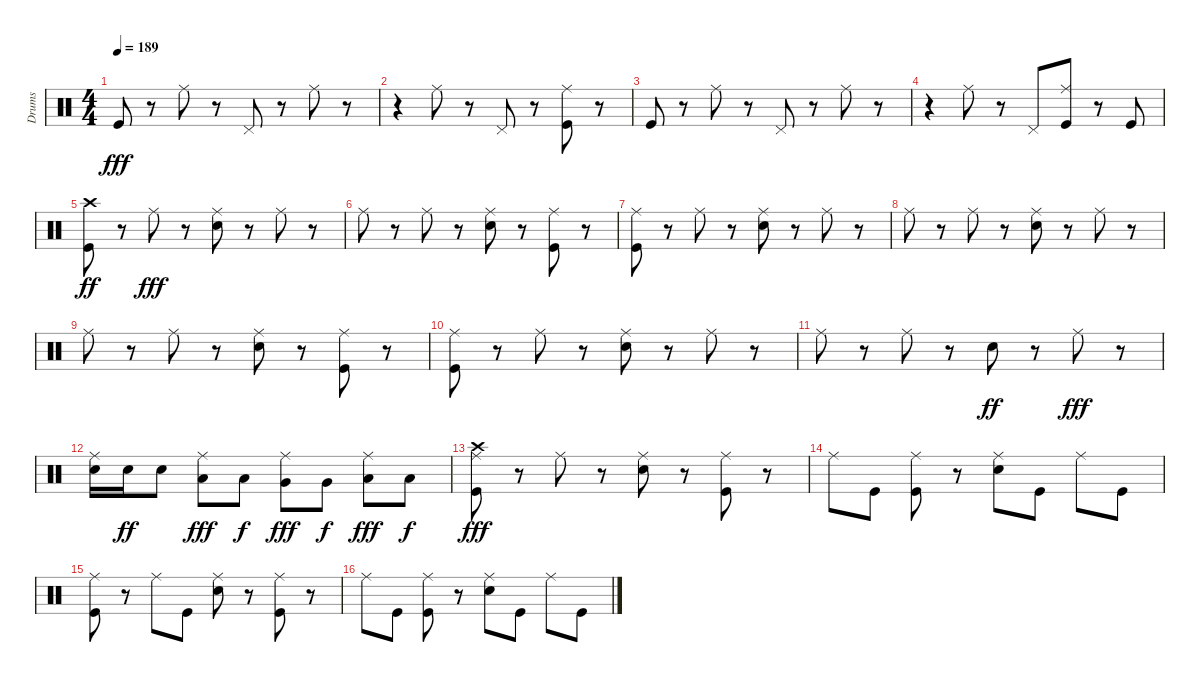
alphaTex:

\track ("Drums" "Drums") {instrument percussion}
\staff {score}
\articulation defaults
\ts (4 4)
\tempo 189
\clef neutral
\ks c "Kick (hit)".8{dy fff}
r.8 "Ride (middle)".8 r.8 "Pedal Hi-Hat (hit)".8 r.8 "Ride (middle)".8 r.8 |
r.4 "Ride (middle)".8 r.8 "Pedal Hi-Hat (hit)".8 r.8 ("Kick (hit)" "Ride (middle)").8 r.8 |
"Kick (hit)".8 r.8 "Ride (middle)".8 r.8 "Pedal Hi-Hat (hit)".8 r.8 "Ride (middle)".8 r.8 |
r.4 "Ride (middle)".8 r.8 "Pedal Hi-Hat (hit)".8 ("Kick (hit)" "Ride (middle)").8 r.8 "Kick (hit)".8 |
("Kick (hit)" "Crash high (hit)").8{dy ff} r.8 "Ride (middle)".8{dy fff} r.8 ("Snare (hit) 2" "Ride (middle)").8 r.8 "Ride (middle)".8 r.8 |
"Ride (middle)".8 r.8 "Ride (middle)".8 r.8 ("Snare (hit) 2" "Ride (middle)").8 r.8 ("Kick (hit)" "Ride (middle)").8 r.8 |
("Kick (hit)" "Ride (middle)").8 r.8 "Ride (middle)".8 r.8 ("Snare (hit) 2" "Ride (middle)").8 r.8 "Ride (middle)".8 r.8 |
"Ride (middle)".8 r.8 "Ride (middle)".8 r.8 ("Snare (hit) 2" "Ride (middle)").8 r.8 "Ride (middle)".8 r.8 |
"Ride (middle)".8 r.8 "Ride (middle)".8 r.8 ("Snare (hit) 2" "Ride (middle)").8 r.8 ("Kick (hit)" "Ride (middle)").8 r.8 |
("Kick (hit)" "Ride (middle)").8 r.8 "Ride (middle)".8 r.8 ("Snare (hit) 2" "Ride (middle)").8 r.8 "Ride (middle)".8 r.8 |
"Ride (middle)".8 r.8 "Ride (middle)".8 r.8 "Snare (hit) 2".8{dy ff} r.8 "Ride (middle)".8{dy fff} r.8 |
("Snare (hit) 2" "Ride (middle)").16 "Snare (hit) 2".16{dy ff} "Snare (hit) 2".8 ("Low Tom (hit)" "Ride (middle)").8{dy fff} "Low Tom (hit)".8{dy f} ("Very Low Tom (hit)" "Ride (middle)").8{dy fff} "Very Low Tom (hit)".8{dy f} ("Low Floor Tom (hit)" "Ride (middle)").8{dy fff} "Low Floor Tom (hit)".8{dy f} |
("Kick (hit)" "Crash high (hit)" "Ride (middle)").8{dy fff} r.8 "Ride (middle)".8 r.8 ("Snare (hit) 2" "Ride (middle)").8 r.8 ("Kick (hit)" "Ride (middle)").8 r.8 |
"Ride (middle)".8 "Kick (hit)".8 ("Kick (hit)" "Ride (middle)").8 r.8 ("Snare (hit) 2" "Ride (middle)").8 "Kick (hit)".8 "Ride (middle)".8 "Kick (hit)".8 |
("Kick (hit)" "Ride (middle)").8 r.8 "Ride (middle)".8 "Kick (hit)".8 ("Snare (hit) 2" "Ride (middle)").8 r.8 ("Kick (hit)" "Ride (middle)").8 r.8 |
"Ride (middle)".8 "Kick (hit)".8 ("Kick (hit)" "Ride (middle)").8 r.8 ("Snare (hit) 2" "Ride (middle)").8 "Kick (hit)".8 "Ride (middle)".8 "Kick (hit)".8
